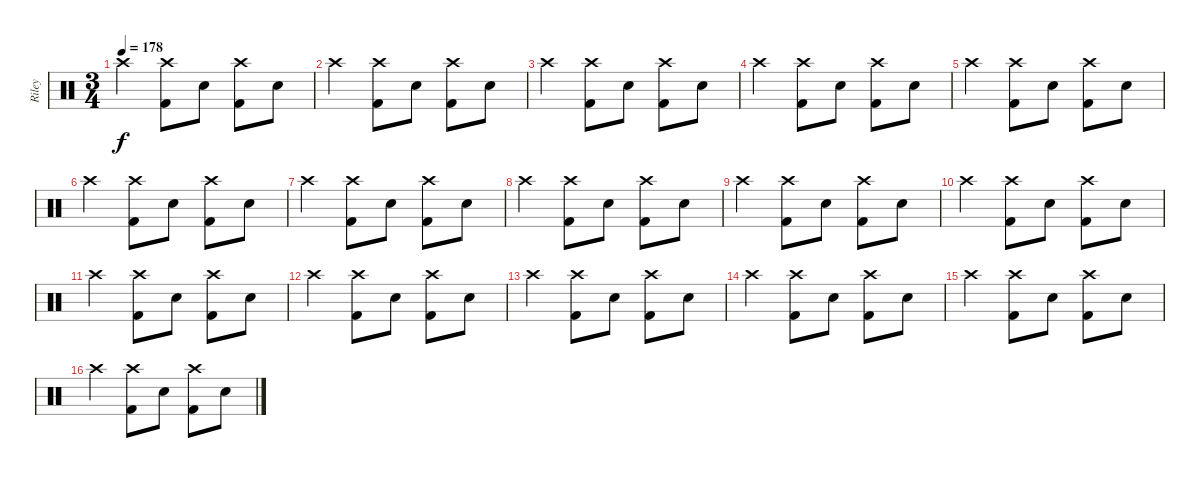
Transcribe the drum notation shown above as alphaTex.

\track ("Riley" "Riley") {instrument percussion}
\staff {score}
\articulation defaults
\ts (3 4)
\tempo 178
\clef neutral
\ks c "Crash high (hit)".4{dy f}
("Crash high (hit)" "Kick (hit) 2").8 "Snare (hit) 2".8 ("Crash high (hit)" "Kick (hit) 2").8 "Snare (hit) 2".8 |
"Crash high (hit)".4 ("Crash high (hit)" "Kick (hit) 2").8 "Snare (hit) 2".8 ("Crash high (hit)" "Kick (hit) 2").8 "Snare (hit) 2".8 |
"Crash high (hit)".4 ("Crash high (hit)" "Kick (hit) 2").8 "Snare (hit) 2".8 ("Crash high (hit)" "Kick (hit) 2").8 "Snare (hit) 2".8 |
"Crash high (hit)".4 ("Crash high (hit)" "Kick (hit) 2").8 "Snare (hit) 2".8 ("Crash high (hit)" "Kick (hit) 2").8 "Snare (hit) 2".8 |
"Crash high (hit)".4 ("Crash high (hit)" "Kick (hit) 2").8 "Snare (hit) 2".8 ("Crash high (hit)" "Kick (hit) 2").8 "Snare (hit) 2".8 |
"Crash high (hit)".4 ("Crash high (hit)" "Kick (hit) 2").8 "Snare (hit) 2".8 ("Crash high (hit)" "Kick (hit) 2").8 "Snare (hit) 2".8 |
"Crash high (hit)".4 ("Crash high (hit)" "Kick (hit) 2").8 "Snare (hit) 2".8 ("Crash high (hit)" "Kick (hit) 2").8 "Snare (hit) 2".8 |
"Crash high (hit)".4 ("Crash high (hit)" "Kick (hit) 2").8 "Snare (hit) 2".8 ("Crash high (hit)" "Kick (hit) 2").8 "Snare (hit) 2".8 |
"Crash high (hit)".4 ("Crash high (hit)" "Kick (hit) 2").8 "Snare (hit) 2".8 ("Crash high (hit)" "Kick (hit) 2").8 "Snare (hit) 2".8 |
"Crash high (hit)".4 ("Crash high (hit)" "Kick (hit) 2").8 "Snare (hit) 2".8 ("Crash high (hit)" "Kick (hit) 2").8 "Snare (hit) 2".8 |
"Crash high (hit)".4 ("Crash high (hit)" "Kick (hit) 2").8 "Snare (hit) 2".8 ("Crash high (hit)" "Kick (hit) 2").8 "Snare (hit) 2".8 |
"Crash high (hit)".4 ("Crash high (hit)" "Kick (hit) 2").8 "Snare (hit) 2".8 ("Crash high (hit)" "Kick (hit) 2").8 "Snare (hit) 2".8 |
"Crash high (hit)".4 ("Crash high (hit)" "Kick (hit) 2").8 "Snare (hit) 2".8 ("Crash high (hit)" "Kick (hit) 2").8 "Snare (hit) 2".8 |
"Crash high (hit)".4 ("Crash high (hit)" "Kick (hit) 2").8 "Snare (hit) 2".8 ("Crash high (hit)" "Kick (hit) 2").8 "Snare (hit) 2".8 |
"Crash high (hit)".4 ("Crash high (hit)" "Kick (hit) 2").8 "Snare (hit) 2".8 ("Crash high (hit)" "Kick (hit) 2").8 "Snare (hit) 2".8 |
"Crash high (hit)".4 ("Crash high (hit)" "Kick (hit) 2").8 "Snare (hit) 2".8 ("Crash high (hit)" "Kick (hit) 2").8 "Snare (hit) 2".8
